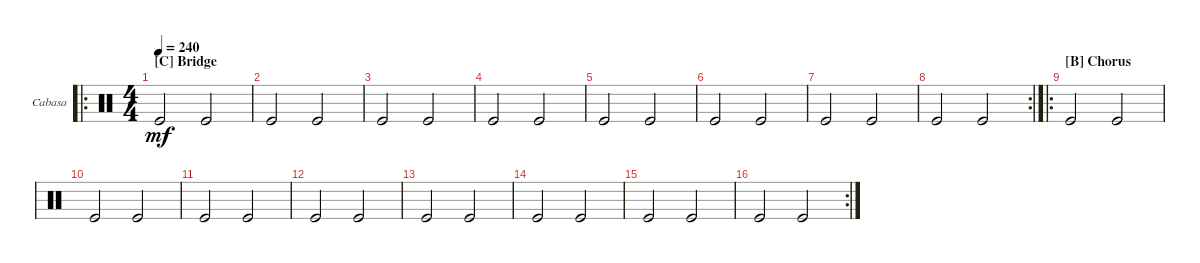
\bracketExtendMode groupsimilarinstruments
\firstSystemTrackNameOrientation horizontal
\otherSystemsTrackNameOrientation horizontal
\track ("Cabasa" "Cabasa") {instrument percussion}
\staff {score}
\articulation defaults
\ro
\ts (4 4)
\section ("C" "Bridge")
\tempo 240
\clef neutral
\scale
0.365591
\ks c "Kick (hit)".2{dy mf} "Kick (hit)".2
|
\scale
0.333333 "Kick (hit)".2 "Kick (hit)".2 |
\scale
0.333333 "Kick (hit)".2 "Kick (hit)".2 |
\scale
0.333333 "Kick (hit)".2 "Kick (hit)".2 |
\scale
0.333333 "Kick (hit)".2 "Kick (hit)".2 |
\scale
0.333333 "Kick (hit)".2 "Kick (hit)".2 |
\scale
0.333333 "Kick (hit)".2 "Kick (hit)".2 |
\rc 2
\scale
0.333333 "Kick (hit)".2 "Kick (hit)".2 |
\ro
\section ("B" "Chorus")
\scale
0.365591 "Kick (hit)".2 "Kick (hit)".2 |
\scale
0.301075 "Kick (hit)".2 "Kick (hit)".2 |
\scale
0.333333 "Kick (hit)".2 "Kick (hit)".2 |
\scale
0.333333 "Kick (hit)".2 "Kick (hit)".2 |
\scale
0.333333 "Kick (hit)".2 "Kick (hit)".2 |
\scale
0.321839 "Kick (hit)".2 "Kick (hit)".2 |
\scale
0.321839 "Kick (hit)".2 "Kick (hit)".2 |
\rc 2
\scale
0.356322 "Kick (hit)".2 "Kick (hit)".2
